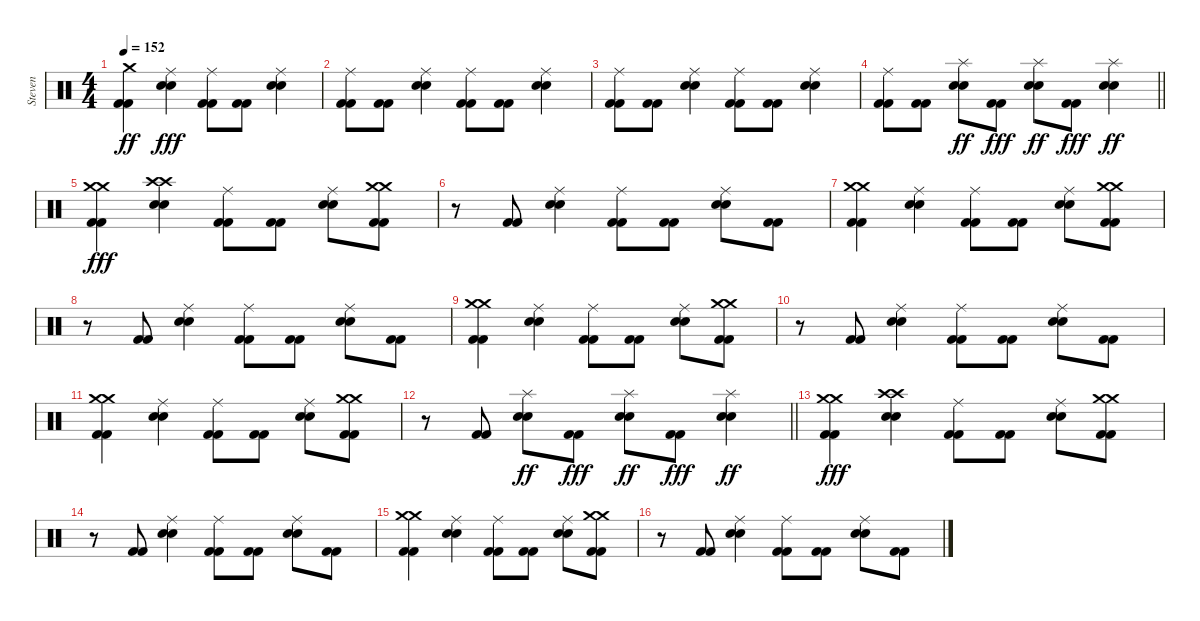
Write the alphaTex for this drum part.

\track ("Steven" "Steven") {instrument percussion}
\staff {score}
\articulation defaults
\ts (4 4)
\tempo 152
\clef neutral
\ks c
("Crash medium (hit)" "Kick (hit) 2" "Kick (hit) 2").4{dy ff} ("Ride (middle)" "Electric Snare (hit)" "Electric Snare (hit)").4{dy fff} ("Ride (middle)" "Kick (hit) 2" "Kick (hit) 2").8 ("Kick (hit) 2" "Kick (hit) 2").8 ("Ride (middle)" "Electric Snare (hit)" "Electric Snare (hit)").4 |
("Ride (middle)" "Kick (hit) 2" "Kick (hit) 2").8 ("Kick (hit) 2" "Kick (hit) 2").8 ("Ride (middle)" "Electric Snare (hit)" "Electric Snare (hit)").4 ("Ride (middle)" "Kick (hit) 2" "Kick (hit) 2").8 ("Kick (hit) 2" "Kick (hit) 2").8 ("Ride (middle)" "Electric Snare (hit)" "Electric Snare (hit)").4 |
("Ride (middle)" "Kick (hit) 2" "Kick (hit) 2").8 ("Kick (hit) 2" "Kick (hit) 2").8 ("Ride (middle)" "Electric Snare (hit)" "Electric Snare (hit)").4 ("Ride (middle)" "Kick (hit) 2" "Kick (hit) 2").8 ("Kick (hit) 2" "Kick (hit) 2").8 ("Ride (middle)" "Electric Snare (hit)" "Electric Snare (hit)").4 |
\barLineRight lightlight
("Ride (middle)" "Kick (hit) 2" "Kick (hit) 2").8 ("Kick (hit) 2" "Kick (hit) 2").8 ("Splash (hit)" "Electric Snare (hit)" "Electric Snare (hit)").8{dy ff} ("Kick (hit) 2" "Kick (hit) 2").8{dy fff} ("Splash (hit)" "Electric Snare (hit)" "Electric Snare (hit)").8{dy ff} ("Kick (hit) 2" "Kick (hit) 2").8{dy fff} ("Splash (hit)" "Electric Snare (hit)" "Electric Snare (hit)").4{dy ff} |
("Crash medium (hit)" "Crash medium (hit)" "Kick (hit) 2" "Kick (hit) 2").4{dy fff} ("Crash high (hit)" "Crash high (hit)" "Electric Snare (hit)" "Electric Snare (hit)").4 ("Ride (middle)" "Kick (hit) 2" "Kick (hit) 2").8 ("Kick (hit) 2" "Kick (hit) 2").8 ("Ride (middle)" "Electric Snare (hit)" "Electric Snare (hit)").8 ("Crash medium (hit)" "Crash medium (hit)" "Kick (hit) 2" "Kick (hit) 2").8 |
r.8 ("Kick (hit) 2" "Kick (hit) 2").8 ("Ride (middle)" "Electric Snare (hit)" "Electric Snare (hit)").4 ("Ride (middle)" "Kick (hit) 2" "Kick (hit) 2").8 ("Kick (hit) 2" "Kick (hit) 2").8 ("Ride (middle)" "Electric Snare (hit)" "Electric Snare (hit)").8 ("Kick (hit) 2" "Kick (hit) 2").8 |
("Crash medium (hit)" "Crash medium (hit)" "Kick (hit) 2" "Kick (hit) 2").4 ("Ride (middle)" "Electric Snare (hit)" "Electric Snare (hit)").4 ("Ride (middle)" "Kick (hit) 2" "Kick (hit) 2").8 ("Kick (hit) 2" "Kick (hit) 2").8 ("Ride (middle)" "Electric Snare (hit)" "Electric Snare (hit)").8 ("Crash medium (hit)" "Crash medium (hit)" "Kick (hit) 2" "Kick (hit) 2").8 |
r.8 ("Kick (hit) 2" "Kick (hit) 2").8 ("Ride (middle)" "Electric Snare (hit)" "Electric Snare (hit)").4 ("Ride (middle)" "Kick (hit) 2" "Kick (hit) 2").8 ("Kick (hit) 2" "Kick (hit) 2").8 ("Ride (middle)" "Electric Snare (hit)" "Electric Snare (hit)").8 ("Kick (hit) 2" "Kick (hit) 2").8 |
("Crash medium (hit)" "Crash medium (hit)" "Kick (hit) 2" "Kick (hit) 2").4 ("Ride (middle)" "Electric Snare (hit)" "Electric Snare (hit)").4 ("Ride (middle)" "Kick (hit) 2" "Kick (hit) 2").8 ("Kick (hit) 2" "Kick (hit) 2").8 ("Ride (middle)" "Electric Snare (hit)" "Electric Snare (hit)").8 ("Crash medium (hit)" "Crash medium (hit)" "Kick (hit) 2" "Kick (hit) 2").8 |
r.8 ("Kick (hit) 2" "Kick (hit) 2").8 ("Ride (middle)" "Electric Snare (hit)" "Electric Snare (hit)").4 ("Ride (middle)" "Kick (hit) 2" "Kick (hit) 2").8 ("Kick (hit) 2" "Kick (hit) 2").8 ("Ride (middle)" "Electric Snare (hit)" "Electric Snare (hit)").8 ("Kick (hit) 2" "Kick (hit) 2").8 |
("Crash medium (hit)" "Crash medium (hit)" "Kick (hit) 2" "Kick (hit) 2").4 ("Ride (middle)" "Electric Snare (hit)" "Electric Snare (hit)").4 ("Ride (middle)" "Kick (hit) 2" "Kick (hit) 2").8 ("Kick (hit) 2" "Kick (hit) 2").8 ("Ride (middle)" "Electric Snare (hit)" "Electric Snare (hit)").8 ("Crash medium (hit)" "Crash medium (hit)" "Kick (hit) 2" "Kick (hit) 2").8 |
\barLineRight lightlight
r.8 ("Kick (hit) 2" "Kick (hit) 2").8 ("Splash (hit)" "Electric Snare (hit)" "Electric Snare (hit)").8{dy ff} ("Kick (hit) 2" "Kick (hit) 2").8{dy fff} ("Splash (hit)" "Electric Snare (hit)" "Electric Snare (hit)").8{dy ff} ("Kick (hit) 2" "Kick (hit) 2").8{dy fff} ("Splash (hit)" "Electric Snare (hit)" "Electric Snare (hit)").4{dy ff} |
("Crash medium (hit)" "Crash medium (hit)" "Kick (hit) 2" "Kick (hit) 2").4{dy fff} ("Crash high (hit)" "Crash high (hit)" "Electric Snare (hit)" "Electric Snare (hit)").4 ("Ride (middle)" "Kick (hit) 2" "Kick (hit) 2").8 ("Kick (hit) 2" "Kick (hit) 2").8 ("Ride (middle)" "Electric Snare (hit)" "Electric Snare (hit)").8 ("Crash medium (hit)" "Crash medium (hit)" "Kick (hit) 2" "Kick (hit) 2").8 |
r.8 ("Kick (hit) 2" "Kick (hit) 2").8 ("Ride (middle)" "Electric Snare (hit)" "Electric Snare (hit)").4 ("Ride (middle)" "Kick (hit) 2" "Kick (hit) 2").8 ("Kick (hit) 2" "Kick (hit) 2").8 ("Ride (middle)" "Electric Snare (hit)" "Electric Snare (hit)").8 ("Kick (hit) 2" "Kick (hit) 2").8 |
("Crash medium (hit)" "Crash medium (hit)" "Kick (hit) 2" "Kick (hit) 2").4 ("Ride (middle)" "Electric Snare (hit)" "Electric Snare (hit)").4 ("Ride (middle)" "Kick (hit) 2" "Kick (hit) 2").8 ("Kick (hit) 2" "Kick (hit) 2").8 ("Ride (middle)" "Electric Snare (hit)" "Electric Snare (hit)").8 ("Crash medium (hit)" "Crash medium (hit)" "Kick (hit) 2" "Kick (hit) 2").8 |
r.8 ("Kick (hit) 2" "Kick (hit) 2").8 ("Ride (middle)" "Electric Snare (hit)" "Electric Snare (hit)").4 ("Ride (middle)" "Kick (hit) 2" "Kick (hit) 2").8 ("Kick (hit) 2" "Kick (hit) 2").8 ("Ride (middle)" "Electric Snare (hit)" "Electric Snare (hit)").8 ("Kick (hit) 2" "Kick (hit) 2").8
